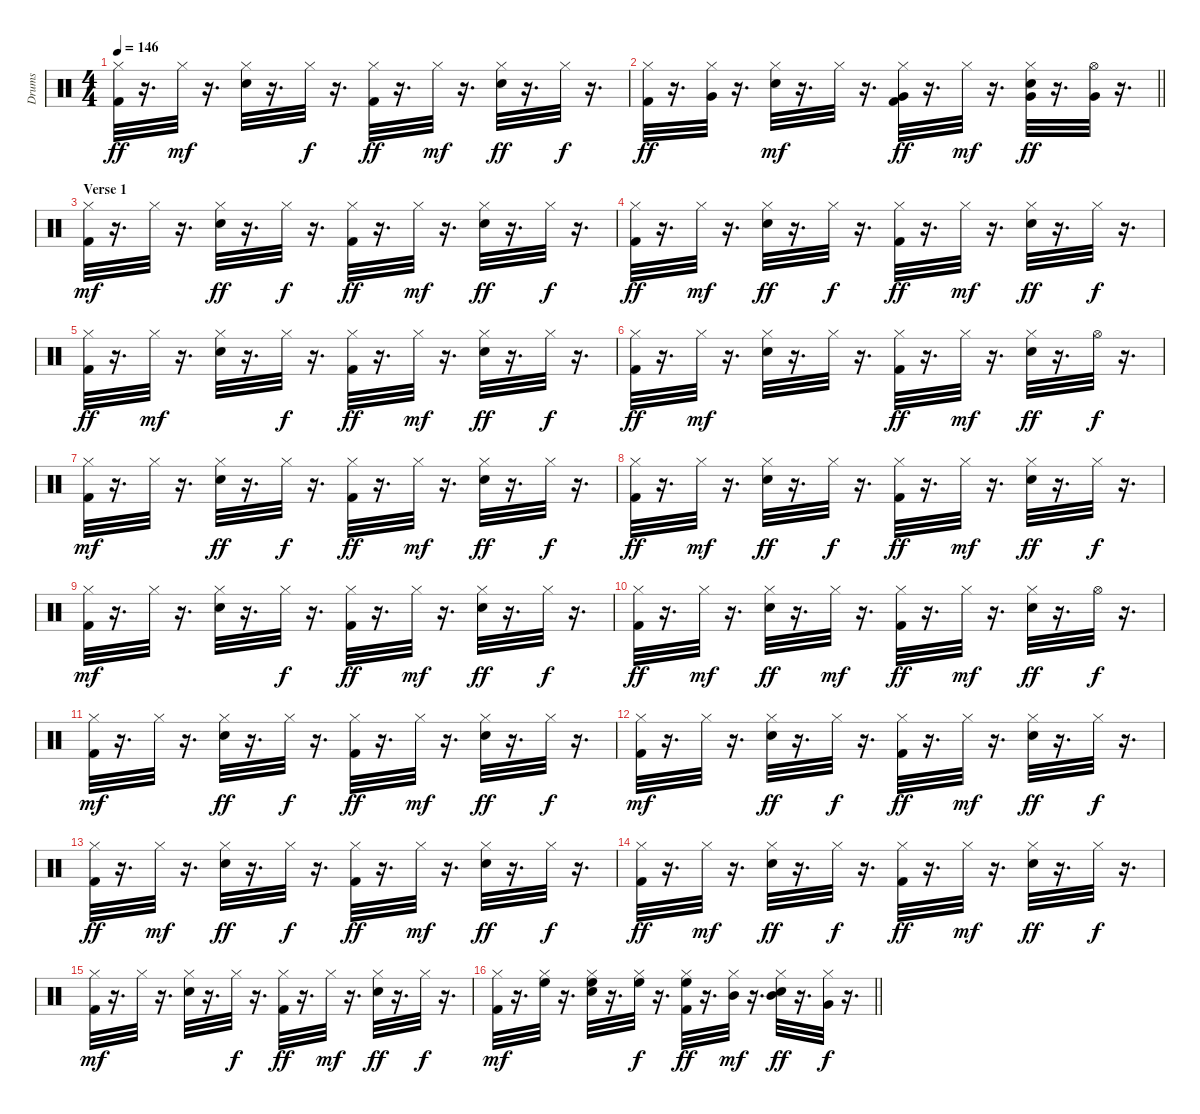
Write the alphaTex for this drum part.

\track ("Drums" "Drums") {instrument percussion}
\staff {score}
\articulation defaults
\ts (4 4)
\tempo 146
\clef neutral
\ks c
("Hi-Hat (closed)" "Kick (hit) 2").32{dy ff} r.16{d} "Hi-Hat (closed)".32{dy mf} r.16{d} ("Snare (hit) 2" "Hi-Hat (closed)").32 r.16{d} "Hi-Hat (closed)".32{dy f} r.16{d} ("Kick (hit) 2" "Hi-Hat (closed)").32{dy ff} r.16{d} "Hi-Hat (closed)".32{dy mf} r.16{d} ("Hi-Hat (closed)" "Snare (hit) 2").32{dy ff} r.16{d} "Hi-Hat (closed)".32{dy f} r.16{d} |
\barLineRight lightlight
("Hi-Hat (closed)" "Kick (hit) 2").32{dy ff} r.16{d} ("Hi-Hat (closed)" "Very Low Tom (hit)").32 r.16{d} ("Snare (hit) 2" "Hi-Hat (closed)").32{dy mf} r.16{d} "Hi-Hat (closed)".32 r.16{d} ("Kick (hit) 2" "Hi-Hat (closed)" "Very Low Tom (hit)").32{dy ff} r.16{d} "Hi-Hat (closed)".32{dy mf} r.16{d} ("Snare (hit) 2" "Hi-Hat (closed)" "Very Low Tom (hit)").32{dy ff} r.16{d} ("Very Low Tom (hit)" "Hi-Hat (open)").32 r.16{d} |
\section ("" "Verse 1")
("Kick (hit) 2" "Hi-Hat (closed)").32{dy mf} r.16{d} "Hi-Hat (closed)".32 r.16{d} ("Hi-Hat (closed)" "Snare (hit) 2").32{dy ff} r.16{d} "Hi-Hat (closed)".32{dy f} r.16{d} ("Kick (hit) 2" "Hi-Hat (closed)").32{dy ff} r.16{d} "Hi-Hat (closed)".32{dy mf} r.16{d} ("Hi-Hat (closed)" "Snare (hit) 2").32{dy ff} r.16{d} "Hi-Hat (closed)".32{dy f} r.16{d} |
("Hi-Hat (closed)" "Kick (hit) 2").32{dy ff} r.16{d} "Hi-Hat (closed)".32{dy mf} r.16{d} ("Hi-Hat (closed)" "Snare (hit) 2").32{dy ff} r.16{d} "Hi-Hat (closed)".32{dy f} r.16{d} ("Kick (hit) 2" "Hi-Hat (closed)").32{dy ff} r.16{d} "Hi-Hat (closed)".32{dy mf} r.16{d} ("Snare (hit) 2" "Hi-Hat (closed)").32{dy ff} r.16{d} "Hi-Hat (closed)".32{dy f} r.16{d} |
("Hi-Hat (closed)" "Kick (hit) 2").32{dy ff} r.16{d} "Hi-Hat (closed)".32{dy mf} r.16{d} ("Snare (hit) 2" "Hi-Hat (closed)").32 r.16{d} "Hi-Hat (closed)".32{dy f} r.16{d} ("Kick (hit) 2" "Hi-Hat (closed)").32{dy ff} r.16{d} "Hi-Hat (closed)".32{dy mf} r.16{d} ("Snare (hit) 2" "Hi-Hat (closed)").32{dy ff} r.16{d} "Hi-Hat (closed)".32{dy f} r.16{d} |
("Kick (hit) 2" "Hi-Hat (closed)").32{dy ff} r.16{d} "Hi-Hat (closed)".32{dy mf} r.16{d} ("Snare (hit) 2" "Hi-Hat (closed)").32 r.16{d} "Hi-Hat (closed)".32 r.16{d} ("Kick (hit) 2" "Hi-Hat (closed)").32{dy ff} r.16{d} "Hi-Hat (closed)".32{dy mf} r.16{d} ("Snare (hit) 2" "Hi-Hat (closed)").32{dy ff} r.16{d} "Hi-Hat (open)".32{dy f} r.16{d} |
("Kick (hit) 2" "Hi-Hat (closed)").32{dy mf} r.16{d} "Hi-Hat (closed)".32 r.16{d} ("Hi-Hat (closed)" "Snare (hit) 2").32{dy ff} r.16{d} "Hi-Hat (closed)".32{dy f} r.16{d} ("Hi-Hat (closed)" "Kick (hit) 2").32{dy ff} r.16{d} "Hi-Hat (closed)".32{dy mf} r.16{d} ("Snare (hit) 2" "Hi-Hat (closed)").32{dy ff} r.16{d} "Hi-Hat (closed)".32{dy f} r.16{d} |
("Hi-Hat (closed)" "Kick (hit) 2").32{dy ff} r.16{d} "Hi-Hat (closed)".32{dy mf} r.16{d} ("Hi-Hat (closed)" "Snare (hit) 2").32{dy ff} r.16{d} "Hi-Hat (closed)".32{dy f} r.16{d} ("Hi-Hat (closed)" "Kick (hit) 2").32{dy ff} r.16{d} "Hi-Hat (closed)".32{dy mf} r.16{d} ("Hi-Hat (closed)" "Snare (hit) 2").32{dy ff} r.16{d} "Hi-Hat (closed)".32{dy f} r.16{d} |
("Kick (hit) 2" "Hi-Hat (closed)").32{dy mf} r.16{d} "Hi-Hat (closed)".32 r.16{d} ("Snare (hit) 2" "Hi-Hat (closed)").32 r.16{d} "Hi-Hat (closed)".32{dy f} r.16{d} ("Kick (hit) 2" "Hi-Hat (closed)").32{dy ff} r.16{d} "Hi-Hat (closed)".32{dy mf} r.16{d} ("Hi-Hat (closed)" "Snare (hit) 2").32{dy ff} r.16{d} "Hi-Hat (closed)".32{dy f} r.16{d} |
("Hi-Hat (closed)" "Kick (hit) 2").32{dy ff} r.16{d} "Hi-Hat (closed)".32{dy mf} r.16{d} ("Hi-Hat (closed)" "Snare (hit) 2").32{dy ff} r.16{d} "Hi-Hat (closed)".32{dy mf} r.16{d} ("Kick (hit) 2" "Hi-Hat (closed)").32{dy ff} r.16{d} "Hi-Hat (closed)".32{dy mf} r.16{d} ("Hi-Hat (closed)" "Snare (hit) 2").32{dy ff} r.16{d} "Hi-Hat (open)".32{dy f} r.16{d} |
("Kick (hit) 2" "Hi-Hat (closed)").32{dy mf} r.16{d} "Hi-Hat (closed)".32 r.16{d} ("Hi-Hat (closed)" "Snare (hit) 2").32{dy ff} r.16{d} "Hi-Hat (closed)".32{dy f} r.16{d} ("Kick (hit) 2" "Hi-Hat (closed)").32{dy ff} r.16{d} "Hi-Hat (closed)".32{dy mf} r.16{d} ("Snare (hit) 2" "Hi-Hat (closed)").32{dy ff} r.16{d} "Hi-Hat (closed)".32{dy f} r.16{d} |
("Kick (hit) 2" "Hi-Hat (closed)").32{dy mf} r.16{d} "Hi-Hat (closed)".32 r.16{d} ("Hi-Hat (closed)" "Snare (hit) 2").32{dy ff} r.16{d} "Hi-Hat (closed)".32{dy f} r.16{d} ("Kick (hit) 2" "Hi-Hat (closed)").32{dy ff} r.16{d} "Hi-Hat (closed)".32{dy mf} r.16{d} ("Snare (hit) 2" "Hi-Hat (closed)").32{dy ff} r.16{d} "Hi-Hat (closed)".32{dy f} r.16{d} |
("Hi-Hat (closed)" "Kick (hit) 2").32{dy ff} r.16{d} "Hi-Hat (closed)".32{dy mf} r.16{d} ("Hi-Hat (closed)" "Snare (hit) 2").32{dy ff} r.16{d} "Hi-Hat (closed)".32{dy f} r.16{d} ("Hi-Hat (closed)" "Kick (hit) 2").32{dy ff} r.16{d} "Hi-Hat (closed)".32{dy mf} r.16{d} ("Snare (hit) 2" "Hi-Hat (closed)").32{dy ff} r.16{d} "Hi-Hat (closed)".32{dy f} r.16{d} |
("Hi-Hat (closed)" "Kick (hit) 2").32{dy ff} r.16{d} "Hi-Hat (closed)".32{dy mf} r.16{d} ("Hi-Hat (closed)" "Snare (hit) 2").32{dy ff} r.16{d} "Hi-Hat (closed)".32{dy f} r.16{d} ("Hi-Hat (closed)" "Kick (hit) 2").32{dy ff} r.16{d} "Hi-Hat (closed)".32{dy mf} r.16{d} ("Snare (hit) 2" "Hi-Hat (closed)").32{dy ff} r.16{d} "Hi-Hat (closed)".32{dy f} r.16{d} |
("Kick (hit) 2" "Hi-Hat (closed)").32{dy mf} r.16{d} "Hi-Hat (closed)".32 r.16{d} ("Snare (hit) 2" "Hi-Hat (closed)").32 r.16{d} "Hi-Hat (closed)".32{dy f} r.16{d} ("Hi-Hat (closed)" "Kick (hit) 2").32{dy ff} r.16{d} "Hi-Hat (closed)".32{dy mf} r.16{d} ("Snare (hit) 2" "Hi-Hat (closed)").32{dy ff} r.16{d} "Hi-Hat (closed)".32{dy f} r.16{d} |
\barLineRight lightlight
("Kick (hit) 2" "Hi-Hat (closed)").32{dy mf} r.16{d} ("Hi-Hat (closed)" "High Floor Tom (hit)").32 r.16{d} ("Snare (hit) 2" "Hi-Hat (closed)" "High Floor Tom (hit)").32 r.16{d} ("Hi-Hat (closed)" "High Floor Tom (hit)").32{dy f} r.16{d} ("Kick (hit) 2" "Hi-Hat (closed)" "High Floor Tom (hit)").32{dy ff} r.16{d} ("Hi-Hat (closed)" "Mid Tom (hit)").32{dy mf} r.16{d} ("Hi-Hat (closed)" "Snare (hit) 2" "Mid Tom (hit)").32{dy ff} r.16{d} ("Hi-Hat (closed)" "Very Low Tom (hit)").32{dy f} r.16{d}
